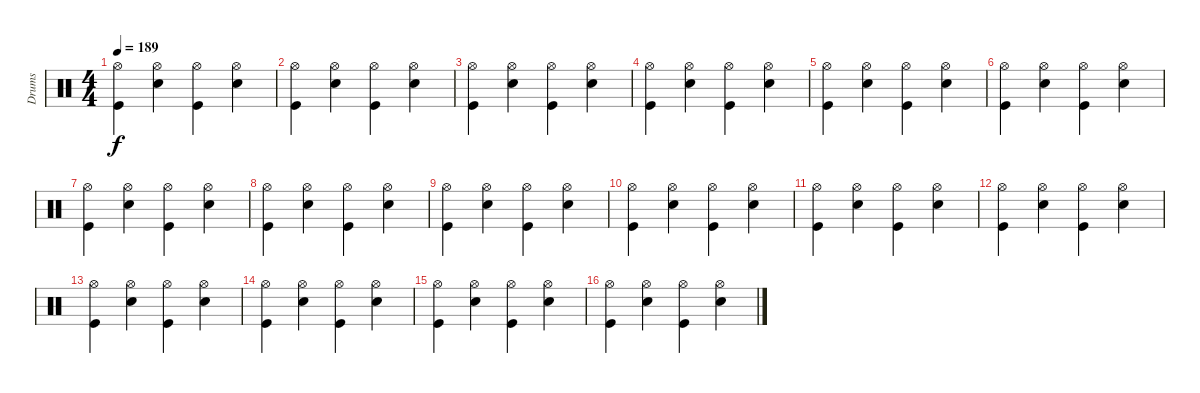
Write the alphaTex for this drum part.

\track ("Drums" "Drums") {instrument percussion}
\staff {score}
\articulation defaults
\ts (4 4)
\tempo 189
\clef neutral
\ks c
("Kick (hit)" "Hi-Hat (open)").4{dy f} ("Snare (hit) 2" "Hi-Hat (open)").4 ("Kick (hit)" "Hi-Hat (open)").4 ("Snare (hit) 2" "Hi-Hat (open)").4 |
("Kick (hit)" "Hi-Hat (open)").4 ("Snare (hit) 2" "Hi-Hat (open)").4 ("Kick (hit)" "Hi-Hat (open)").4 ("Snare (hit) 2" "Hi-Hat (open)").4 |
("Kick (hit)" "Hi-Hat (open)").4 ("Snare (hit) 2" "Hi-Hat (open)").4 ("Kick (hit)" "Hi-Hat (open)").4 ("Snare (hit) 2" "Hi-Hat (open)").4 |
("Kick (hit)" "Hi-Hat (open)").4 ("Snare (hit) 2" "Hi-Hat (open)").4 ("Kick (hit)" "Hi-Hat (open)").4 ("Snare (hit) 2" "Hi-Hat (open)").4 |
("Kick (hit)" "Hi-Hat (open)").4 ("Snare (hit) 2" "Hi-Hat (open)").4 ("Kick (hit)" "Hi-Hat (open)").4 ("Snare (hit) 2" "Hi-Hat (open)").4 |
("Kick (hit)" "Hi-Hat (open)").4 ("Snare (hit) 2" "Hi-Hat (open)").4 ("Kick (hit)" "Hi-Hat (open)").4 ("Snare (hit) 2" "Hi-Hat (open)").4 |
("Kick (hit)" "Hi-Hat (open)").4 ("Snare (hit) 2" "Hi-Hat (open)").4 ("Kick (hit)" "Hi-Hat (open)").4 ("Snare (hit) 2" "Hi-Hat (open)").4 |
("Kick (hit)" "Hi-Hat (open)").4 ("Snare (hit) 2" "Hi-Hat (open)").4 ("Kick (hit)" "Hi-Hat (open)").4 ("Snare (hit) 2" "Hi-Hat (open)").4 |
("Kick (hit)" "Hi-Hat (open)").4 ("Snare (hit) 2" "Hi-Hat (open)").4 ("Kick (hit)" "Hi-Hat (open)").4 ("Snare (hit) 2" "Hi-Hat (open)").4 |
("Kick (hit)" "Hi-Hat (open)").4 ("Snare (hit) 2" "Hi-Hat (open)").4 ("Kick (hit)" "Hi-Hat (open)").4 ("Snare (hit) 2" "Hi-Hat (open)").4 |
("Kick (hit)" "Hi-Hat (open)").4 ("Snare (hit) 2" "Hi-Hat (open)").4 ("Kick (hit)" "Hi-Hat (open)").4 ("Snare (hit) 2" "Hi-Hat (open)").4 |
("Kick (hit)" "Hi-Hat (open)").4 ("Snare (hit) 2" "Hi-Hat (open)").4 ("Kick (hit)" "Hi-Hat (open)").4 ("Snare (hit) 2" "Hi-Hat (open)").4 |
("Kick (hit)" "Hi-Hat (open)").4 ("Snare (hit) 2" "Hi-Hat (open)").4 ("Kick (hit)" "Hi-Hat (open)").4 ("Snare (hit) 2" "Hi-Hat (open)").4 |
("Kick (hit)" "Hi-Hat (open)").4 ("Snare (hit) 2" "Hi-Hat (open)").4 ("Kick (hit)" "Hi-Hat (open)").4 ("Snare (hit) 2" "Hi-Hat (open)").4 |
("Kick (hit)" "Hi-Hat (open)").4 ("Snare (hit) 2" "Hi-Hat (open)").4 ("Kick (hit)" "Hi-Hat (open)").4 ("Snare (hit) 2" "Hi-Hat (open)").4 |
("Kick (hit)" "Hi-Hat (open)").4 ("Snare (hit) 2" "Hi-Hat (open)").4 ("Kick (hit)" "Hi-Hat (open)").4 ("Snare (hit) 2" "Hi-Hat (open)").4
